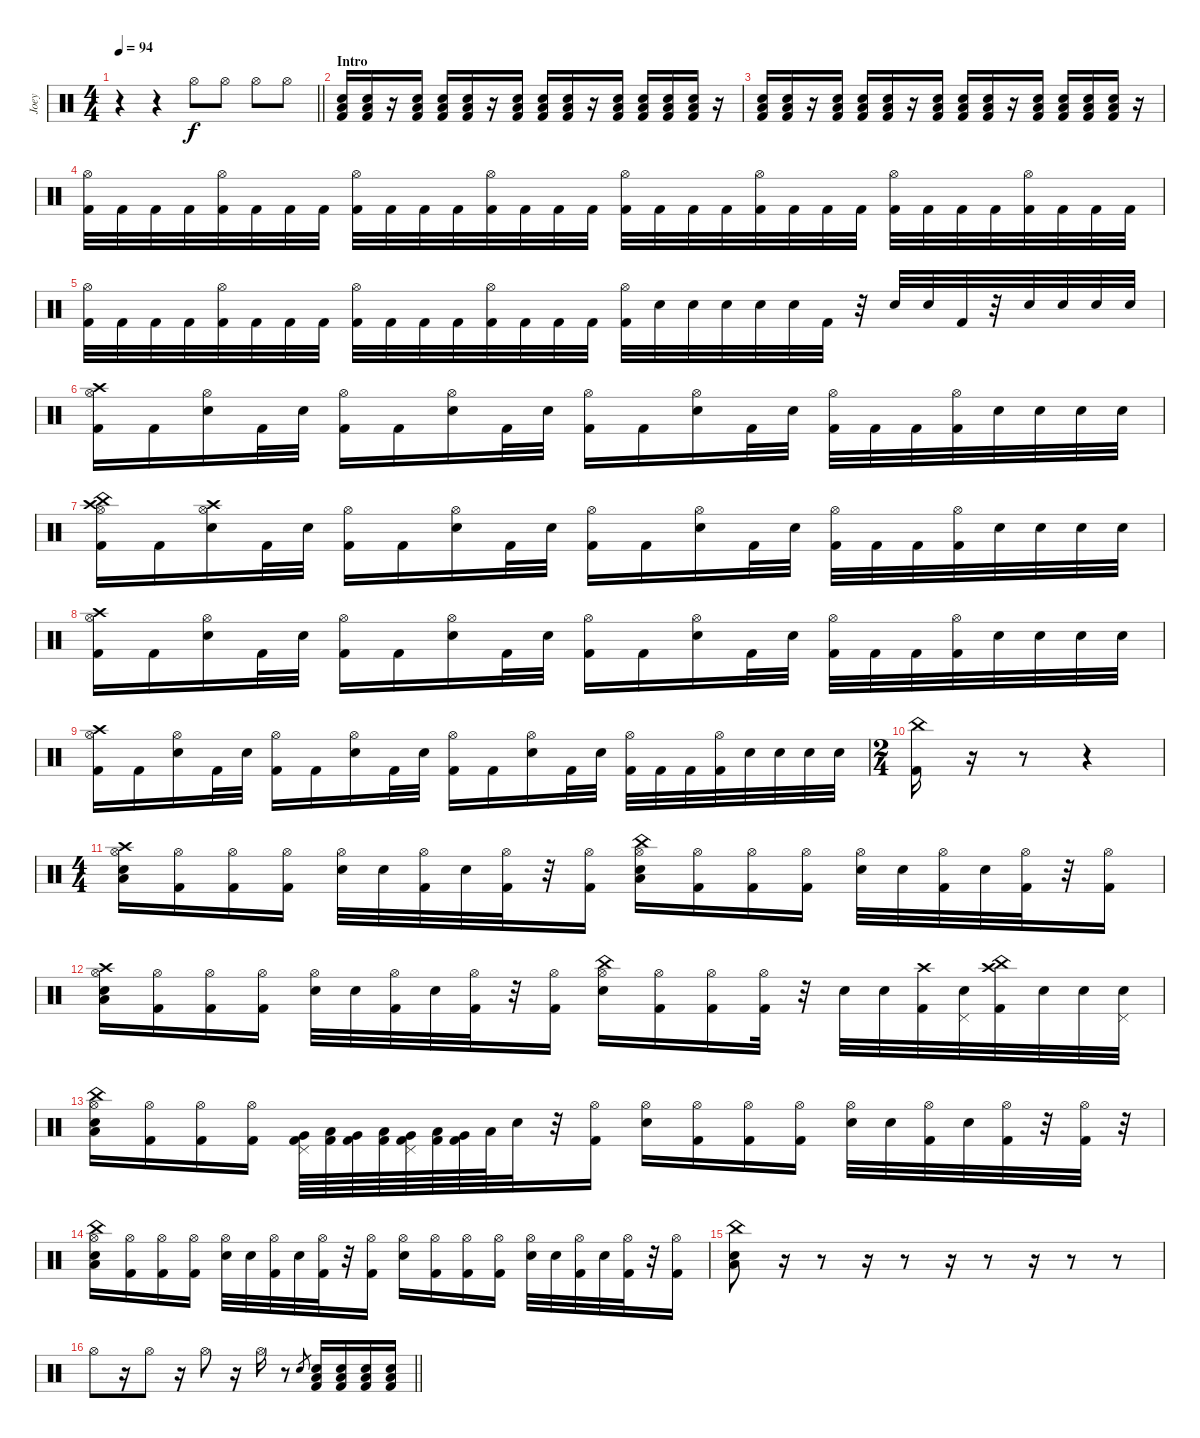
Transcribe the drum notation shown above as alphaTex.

\track ("Joey" "Joey") {instrument percussion}
\staff {score}
\articulation defaults
\ts (4 4)
\tempo 94
\clef neutral
\barLineRight lightlight
\ks c
r.4{dy f} r.4 "Hi-Hat (open)".8 "Hi-Hat (open)".8 "Hi-Hat (open)".8 "Hi-Hat (open)".8 |
\section ("" "Intro")
("Low Floor Tom (hit)" "Electric Snare (hit)" "Kick (hit) 2").16 ("Low Floor Tom (hit)" "Electric Snare (hit)" "Kick (hit) 2").16 r.16 ("Low Floor Tom (hit)" "Electric Snare (hit)" "Kick (hit) 2").16 ("Low Floor Tom (hit)" "Electric Snare (hit)" "Kick (hit) 2").16 ("Low Floor Tom (hit)" "Electric Snare (hit)" "Kick (hit) 2").16 r.16 ("Low Floor Tom (hit)" "Electric Snare (hit)" "Kick (hit) 2").16 ("Low Floor Tom (hit)" "Electric Snare (hit)" "Kick (hit) 2").16 ("Low Floor Tom (hit)" "Electric Snare (hit)" "Kick (hit) 2").16 r.16 ("Low Floor Tom (hit)" "Electric Snare (hit)" "Kick (hit) 2").16 ("Low Floor Tom (hit)" "Electric Snare (hit)" "Kick (hit) 2").16 ("Low Floor Tom (hit)" "Electric Snare (hit)" "Kick (hit) 2").16 ("Low Floor Tom (hit)" "Electric Snare (hit)" "Kick (hit) 2").16 r.16 |
("Low Floor Tom (hit)" "Electric Snare (hit)" "Kick (hit) 2").16 ("Low Floor Tom (hit)" "Electric Snare (hit)" "Kick (hit) 2").16 r.16 ("Low Floor Tom (hit)" "Electric Snare (hit)" "Kick (hit) 2").16 ("Low Floor Tom (hit)" "Electric Snare (hit)" "Kick (hit) 2").16 ("Low Floor Tom (hit)" "Electric Snare (hit)" "Kick (hit) 2").16 r.16 ("Low Floor Tom (hit)" "Electric Snare (hit)" "Kick (hit) 2").16 ("Low Floor Tom (hit)" "Electric Snare (hit)" "Kick (hit) 2").16 ("Low Floor Tom (hit)" "Electric Snare (hit)" "Kick (hit) 2").16 r.16 ("Low Floor Tom (hit)" "Electric Snare (hit)" "Kick (hit) 2").16 ("Low Floor Tom (hit)" "Electric Snare (hit)" "Kick (hit) 2").16 ("Low Floor Tom (hit)" "Electric Snare (hit)" "Kick (hit) 2").16 ("Low Floor Tom (hit)" "Electric Snare (hit)" "Kick (hit) 2").16 r.16 |
("Hi-Hat (open)" "Kick (hit) 2").32 "Kick (hit) 2".32 "Kick (hit) 2".32 "Kick (hit) 2".32 ("Hi-Hat (open)" "Kick (hit) 2").32 "Kick (hit) 2".32 "Kick (hit) 2".32 "Kick (hit) 2".32 ("Hi-Hat (open)" "Kick (hit) 2").32 "Kick (hit) 2".32 "Kick (hit) 2".32 "Kick (hit) 2".32 ("Hi-Hat (open)" "Kick (hit) 2").32 "Kick (hit) 2".32 "Kick (hit) 2".32 "Kick (hit) 2".32 ("Hi-Hat (open)" "Kick (hit) 2").32 "Kick (hit) 2".32 "Kick (hit) 2".32 "Kick (hit) 2".32 ("Hi-Hat (open)" "Kick (hit) 2").32 "Kick (hit) 2".32 "Kick (hit) 2".32 "Kick (hit) 2".32 ("Hi-Hat (open)" "Kick (hit) 2").32 "Kick (hit) 2".32 "Kick (hit) 2".32 "Kick (hit) 2".32 ("Hi-Hat (open)" "Kick (hit) 2").32 "Kick (hit) 2".32 "Kick (hit) 2".32 "Kick (hit) 2".32 |
("Hi-Hat (open)" "Kick (hit) 2").32 "Kick (hit) 2".32 "Kick (hit) 2".32 "Kick (hit) 2".32 ("Hi-Hat (open)" "Kick (hit) 2").32 "Kick (hit) 2".32 "Kick (hit) 2".32 "Kick (hit) 2".32 ("Hi-Hat (open)" "Kick (hit) 2").32 "Kick (hit) 2".32 "Kick (hit) 2".32 "Kick (hit) 2".32 ("Hi-Hat (open)" "Kick (hit) 2").32 "Kick (hit) 2".32 "Kick (hit) 2".32 "Kick (hit) 2".32 ("Hi-Hat (open)" "Kick (hit) 2").32 "Electric Snare (hit)".32 "Electric Snare (hit)".32 "Electric Snare (hit)".32 "Electric Snare (hit)".32 "Electric Snare (hit)".32 "Kick (hit) 2".32 r.32 "Electric Snare (hit)".32 "Electric Snare (hit)".32 "Kick (hit) 2".32 r.32 "Electric Snare (hit)".32 "Electric Snare (hit)".32 "Electric Snare (hit)".32 "Electric Snare (hit)".32 |
("Crash high (hit)" "Hi-Hat (open)" "Kick (hit) 2").16 "Kick (hit) 2".16 ("Hi-Hat (open)" "Electric Snare (hit)").16 "Kick (hit) 2".32 "Electric Snare (hit)".32 ("Hi-Hat (open)" "Kick (hit) 2").16 "Kick (hit) 2".16 ("Hi-Hat (open)" "Electric Snare (hit)").16 "Kick (hit) 2".32 "Electric Snare (hit)".32 ("Hi-Hat (open)" "Kick (hit) 2").16 "Kick (hit) 2".16 ("Hi-Hat (open)" "Electric Snare (hit)").16 "Kick (hit) 2".32 "Electric Snare (hit)".32 ("Hi-Hat (open)" "Kick (hit) 2").32 "Kick (hit) 2".32 "Kick (hit) 2".32 ("Hi-Hat (open)" "Kick (hit) 2").32 "Electric Snare (hit)".32 "Electric Snare (hit)".32 "Electric Snare (hit)".32 "Electric Snare (hit)".32 |
("China (hit)" "Crash high (hit)" "Hi-Hat (open)" "Kick (hit) 2").16 "Kick (hit) 2".16 ("Crash high (hit)" "Hi-Hat (open)" "Electric Snare (hit)").16 "Kick (hit) 2".32 "Electric Snare (hit)".32 ("Hi-Hat (open)" "Kick (hit) 2").16 "Kick (hit) 2".16 ("Hi-Hat (open)" "Electric Snare (hit)").16 "Kick (hit) 2".32 "Electric Snare (hit)".32 ("Hi-Hat (open)" "Kick (hit) 2").16 "Kick (hit) 2".16 ("Hi-Hat (open)" "Electric Snare (hit)").16 "Kick (hit) 2".32 "Electric Snare (hit)".32 ("Hi-Hat (open)" "Kick (hit) 2").32 "Kick (hit) 2".32 "Kick (hit) 2".32 ("Hi-Hat (open)" "Kick (hit) 2").32 "Electric Snare (hit)".32 "Electric Snare (hit)".32 "Electric Snare (hit)".32 "Electric Snare (hit)".32 |
("Crash high (hit)" "Hi-Hat (open)" "Kick (hit) 2").16 "Kick (hit) 2".16 ("Hi-Hat (open)" "Electric Snare (hit)").16 "Kick (hit) 2".32 "Electric Snare (hit)".32 ("Hi-Hat (open)" "Kick (hit) 2").16 "Kick (hit) 2".16 ("Hi-Hat (open)" "Electric Snare (hit)").16 "Kick (hit) 2".32 "Electric Snare (hit)".32 ("Hi-Hat (open)" "Kick (hit) 2").16 "Kick (hit) 2".16 ("Hi-Hat (open)" "Electric Snare (hit)").16 "Kick (hit) 2".32 "Electric Snare (hit)".32 ("Hi-Hat (open)" "Kick (hit) 2").32 "Kick (hit) 2".32 "Kick (hit) 2".32 ("Hi-Hat (open)" "Kick (hit) 2").32 "Electric Snare (hit)".32 "Electric Snare (hit)".32 "Electric Snare (hit)".32 "Electric Snare (hit)".32 |
("Crash high (hit)" "Hi-Hat (open)" "Kick (hit) 2").16 "Kick (hit) 2".16 ("Hi-Hat (open)" "Electric Snare (hit)").16 "Kick (hit) 2".32 "Electric Snare (hit)".32 ("Hi-Hat (open)" "Kick (hit) 2").16 "Kick (hit) 2".16 ("Hi-Hat (open)" "Electric Snare (hit)").16 "Kick (hit) 2".32 "Electric Snare (hit)".32 ("Hi-Hat (open)" "Kick (hit) 2").16 "Kick (hit) 2".16 ("Hi-Hat (open)" "Electric Snare (hit)").16 "Kick (hit) 2".32 "Electric Snare (hit)".32 ("Hi-Hat (open)" "Kick (hit) 2").32 "Kick (hit) 2".32 "Kick (hit) 2".32 ("Hi-Hat (open)" "Kick (hit) 2").32 "Electric Snare (hit)".32 "Electric Snare (hit)".32 "Electric Snare (hit)".32 "Electric Snare (hit)".32 |
\ts (2 4)
("China (hit)" "Kick (hit) 2").16 r.16 r.8 r.4 |
\ts (4 4)
("Crash high (hit)" "Hi-Hat (open)" "Low Floor Tom (hit)" "Electric Snare (hit)").16 ("Hi-Hat (open)" "Kick (hit) 2").16 ("Hi-Hat (open)" "Kick (hit) 2").16 ("Hi-Hat (open)" "Kick (hit) 2").16 ("Hi-Hat (open)" "Electric Snare (hit)").32 "Electric Snare (hit)".32 ("Hi-Hat (open)" "Kick (hit) 2").32 "Electric Snare (hit)".32 ("Hi-Hat (open)" "Kick (hit) 2").32 r.32 ("Hi-Hat (open)" "Kick (hit) 2").16 ("China (hit)" "Hi-Hat (open)" "Low Floor Tom (hit)" "Electric Snare (hit)").16 ("Hi-Hat (open)" "Kick (hit) 2").16 ("Hi-Hat (open)" "Kick (hit) 2").16 ("Hi-Hat (open)" "Kick (hit) 2").16 ("Hi-Hat (open)" "Electric Snare (hit)").32 "Electric Snare (hit)".32 ("Hi-Hat (open)" "Kick (hit) 2").32 "Electric Snare (hit)".32 ("Hi-Hat (open)" "Kick (hit) 2").32 r.32 ("Hi-Hat (open)" "Kick (hit) 2").16 |
("Crash high (hit)" "Hi-Hat (open)" "Low Floor Tom (hit)" "Electric Snare (hit)").16 ("Hi-Hat (open)" "Kick (hit) 2").16 ("Hi-Hat (open)" "Kick (hit) 2").16 ("Hi-Hat (open)" "Kick (hit) 2").16 ("Hi-Hat (open)" "Electric Snare (hit)").32 "Electric Snare (hit)".32 ("Hi-Hat (open)" "Kick (hit) 2").32 "Electric Snare (hit)".32 ("Hi-Hat (open)" "Kick (hit) 2").32 r.32 ("Hi-Hat (open)" "Kick (hit) 2").16 ("China (hit)" "Hi-Hat (open)" "Electric Snare (hit)").16 ("Hi-Hat (open)" "Kick (hit) 2").16 ("Hi-Hat (open)" "Kick (hit) 2").16 ("Hi-Hat (open)" "Kick (hit) 2").32 r.32 "Electric Snare (hit)".32 "Electric Snare (hit)".32 ("Crash high (hit)" "Kick (hit) 2").32 ("Pedal Hi-Hat (hit)" "Electric Snare (hit)").32 ("Crash high (hit)" "China (hit)" "Kick (hit) 2").32 "Electric Snare (hit)".32 "Electric Snare (hit)".32 ("Pedal Hi-Hat (hit)" "Electric Snare (hit)").32 |
("China (hit)" "Hi-Hat (open)" "Low Floor Tom (hit)" "Electric Snare (hit)").16 ("Hi-Hat (open)" "Kick (hit) 2").16 ("Hi-Hat (open)" "Kick (hit) 2").16 ("Hi-Hat (open)" "Kick (hit) 2").16 ("Kick (hit) 2" "Pedal Hi-Hat (hit)" "Very Low Tom (hit)").64 ("Kick (hit) 2" "Low Tom (hit)").64 ("Kick (hit) 2" "Very Low Tom (hit)").64 ("Kick (hit) 2" "Low Tom (hit)").64 ("Kick (hit) 2" "Pedal Hi-Hat (hit)" "Very Low Tom (hit)").64 ("Kick (hit) 2" "Low Tom (hit)").64 ("Kick (hit) 2" "Very Low Tom (hit)").64 "Low Tom (hit)".64 "Electric Snare (hit)".32 r.32 ("Hi-Hat (open)" "Kick (hit) 2").16 ("Hi-Hat (open)" "Electric Snare (hit)").16 ("Hi-Hat (open)" "Kick (hit) 2").16 ("Hi-Hat (open)" "Kick (hit) 2").16 ("Hi-Hat (open)" "Kick (hit) 2").16 ("Hi-Hat (open)" "Electric Snare (hit)").32 "Electric Snare (hit)".32 ("Hi-Hat (open)" "Kick (hit) 2").32 "Electric Snare (hit)".32 ("Hi-Hat (open)" "Kick (hit) 2").32 r.32 ("Hi-Hat (open)" "Kick (hit) 2").32 r.32 |
("China (hit)" "Hi-Hat (open)" "Low Floor Tom (hit)" "Electric Snare (hit)").16 ("Hi-Hat (open)" "Kick (hit) 2").16 ("Hi-Hat (open)" "Kick (hit) 2").16 ("Hi-Hat (open)" "Kick (hit) 2").16 ("Hi-Hat (open)" "Electric Snare (hit)").32 "Electric Snare (hit)".32 ("Hi-Hat (open)" "Kick (hit) 2").32 "Electric Snare (hit)".32 ("Hi-Hat (open)" "Kick (hit) 2").32 r.32 ("Hi-Hat (open)" "Kick (hit) 2").16 ("Hi-Hat (open)" "Electric Snare (hit)").16 ("Hi-Hat (open)" "Kick (hit) 2").16 ("Hi-Hat (open)" "Kick (hit) 2").16 ("Hi-Hat (open)" "Kick (hit) 2").16 ("Hi-Hat (open)" "Electric Snare (hit)").32 "Electric Snare (hit)".32 ("Hi-Hat (open)" "Kick (hit) 2").32 "Electric Snare (hit)".32 ("Hi-Hat (open)" "Kick (hit) 2").32 r.32 ("Hi-Hat (open)" "Kick (hit) 2").16 |
("China (hit)" "Low Floor Tom (hit)" "Electric Snare (hit)").8 r.16 r.8 r.16 r.8 r.16 r.8 r.16 r.8 r.8 |
\barLineRight lightlight "Hi-Hat (open)".8
r.16 "Hi-Hat (open)".8 r.16 "Hi-Hat (open)".8 r.16 "Hi-Hat (open)".16 r.8 "Electric Snare (hit)".8{gr} ("Kick (hit) 2" "Low Floor Tom (hit)" "Electric Snare (hit)").16 ("Kick (hit) 2" "Low Floor Tom (hit)" "Electric Snare (hit)").16 ("Kick (hit) 2" "Low Floor Tom (hit)" "Electric Snare (hit)").16 ("Kick (hit) 2" "Low Floor Tom (hit)" "Electric Snare (hit)").16
